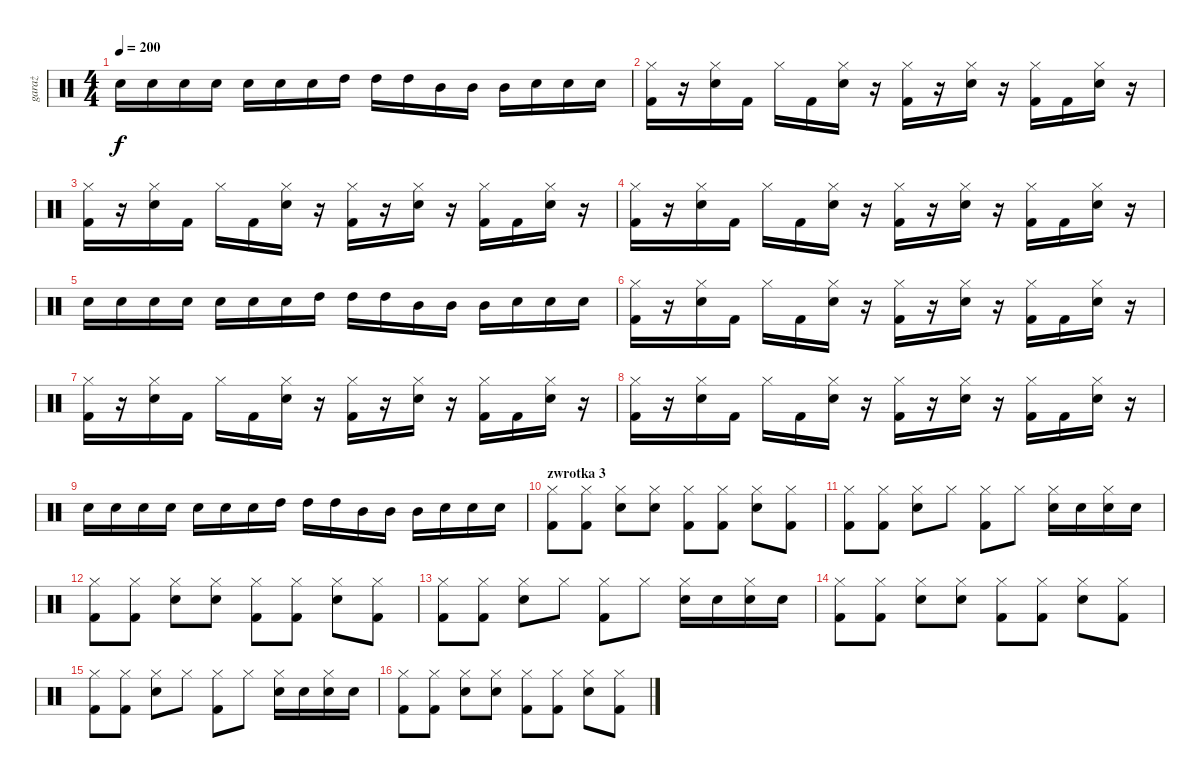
\track ("garaż" "garaż") {instrument percussion}
\staff {score}
\articulation defaults
\ts (4 4)
\tempo 200
\clef neutral
\ks c "Snare (hit) 2".16{dy f} "Snare (hit) 2".16 "Snare (hit) 2".16 "Snare (hit) 2".16 "Snare (hit) 2".16 "Snare (hit) 2".16 "Snare (hit) 2".16 "High Tom (hit)".16 "High Tom (hit)".16 "High Tom (hit)".16 "Mid Tom (hit)".16 "Mid Tom (hit)".16 "Mid Tom (hit)".16 "Snare (hit) 2".16 "Snare (hit) 2".16 "Snare (hit) 2".16
|
("Hi-Hat (closed)" "Kick (hit) 2").16 r.16 ("Hi-Hat (closed)" "Snare (hit) 2").16 "Kick (hit) 2".16 "Hi-Hat (closed)".16 "Kick (hit) 2".16 ("Hi-Hat (closed)" "Snare (hit) 2").16 r.16 ("Hi-Hat (closed)" "Kick (hit) 2").16 r.16 ("Hi-Hat (closed)" "Snare (hit) 2").16 r.16 ("Hi-Hat (closed)" "Kick (hit) 2").16 "Kick (hit) 2".16 ("Hi-Hat (closed)" "Snare (hit) 2").16 r.16 |
("Hi-Hat (closed)" "Kick (hit) 2").16 r.16 ("Hi-Hat (closed)" "Snare (hit) 2").16 "Kick (hit) 2".16 "Hi-Hat (closed)".16 "Kick (hit) 2".16 ("Hi-Hat (closed)" "Snare (hit) 2").16 r.16 ("Hi-Hat (closed)" "Kick (hit) 2").16 r.16 ("Hi-Hat (closed)" "Snare (hit) 2").16 r.16 ("Hi-Hat (closed)" "Kick (hit) 2").16 "Kick (hit) 2".16 ("Hi-Hat (closed)" "Snare (hit) 2").16 r.16 |
("Hi-Hat (closed)" "Kick (hit) 2").16 r.16 ("Hi-Hat (closed)" "Snare (hit) 2").16 "Kick (hit) 2".16 "Hi-Hat (closed)".16 "Kick (hit) 2".16 ("Hi-Hat (closed)" "Snare (hit) 2").16 r.16 ("Hi-Hat (closed)" "Kick (hit) 2").16 r.16 ("Hi-Hat (closed)" "Snare (hit) 2").16 r.16 ("Hi-Hat (closed)" "Kick (hit) 2").16 "Kick (hit) 2".16 ("Hi-Hat (closed)" "Snare (hit) 2").16 r.16 |
"Snare (hit) 2".16 "Snare (hit) 2".16 "Snare (hit) 2".16 "Snare (hit) 2".16 "Snare (hit) 2".16 "Snare (hit) 2".16 "Snare (hit) 2".16 "High Tom (hit)".16 "High Tom (hit)".16 "High Tom (hit)".16 "Mid Tom (hit)".16 "Mid Tom (hit)".16 "Mid Tom (hit)".16 "Snare (hit) 2".16 "Snare (hit) 2".16 "Snare (hit) 2".16 |
("Hi-Hat (closed)" "Kick (hit) 2").16 r.16 ("Hi-Hat (closed)" "Snare (hit) 2").16 "Kick (hit) 2".16 "Hi-Hat (closed)".16 "Kick (hit) 2".16 ("Hi-Hat (closed)" "Snare (hit) 2").16 r.16 ("Hi-Hat (closed)" "Kick (hit) 2").16 r.16 ("Hi-Hat (closed)" "Snare (hit) 2").16 r.16 ("Hi-Hat (closed)" "Kick (hit) 2").16 "Kick (hit) 2".16 ("Hi-Hat (closed)" "Snare (hit) 2").16 r.16 |
("Hi-Hat (closed)" "Kick (hit) 2").16 r.16 ("Hi-Hat (closed)" "Snare (hit) 2").16 "Kick (hit) 2".16 "Hi-Hat (closed)".16 "Kick (hit) 2".16 ("Hi-Hat (closed)" "Snare (hit) 2").16 r.16 ("Hi-Hat (closed)" "Kick (hit) 2").16 r.16 ("Hi-Hat (closed)" "Snare (hit) 2").16 r.16 ("Hi-Hat (closed)" "Kick (hit) 2").16 "Kick (hit) 2".16 ("Hi-Hat (closed)" "Snare (hit) 2").16 r.16 |
("Hi-Hat (closed)" "Kick (hit) 2").16 r.16 ("Hi-Hat (closed)" "Snare (hit) 2").16 "Kick (hit) 2".16 "Hi-Hat (closed)".16 "Kick (hit) 2".16 ("Hi-Hat (closed)" "Snare (hit) 2").16 r.16 ("Hi-Hat (closed)" "Kick (hit) 2").16 r.16 ("Hi-Hat (closed)" "Snare (hit) 2").16 r.16 ("Hi-Hat (closed)" "Kick (hit) 2").16 "Kick (hit) 2".16 ("Hi-Hat (closed)" "Snare (hit) 2").16 r.16 |
"Snare (hit) 2".16 "Snare (hit) 2".16 "Snare (hit) 2".16 "Snare (hit) 2".16 "Snare (hit) 2".16 "Snare (hit) 2".16 "Snare (hit) 2".16 "High Tom (hit)".16 "High Tom (hit)".16 "High Tom (hit)".16 "Mid Tom (hit)".16 "Mid Tom (hit)".16 "Mid Tom (hit)".16 "Snare (hit) 2".16 "Snare (hit) 2".16 "Snare (hit) 2".16 |
\section ("" "zwrotka 3")
("Hi-Hat (closed)" "Kick (hit) 2").8 ("Hi-Hat (closed)" "Kick (hit) 2").8 ("Hi-Hat (closed)" "Snare (hit) 2").8 ("Hi-Hat (closed)" "Snare (hit) 2").8 ("Hi-Hat (closed)" "Kick (hit) 2").8 ("Hi-Hat (closed)" "Kick (hit) 2").8 ("Hi-Hat (closed)" "Snare (hit) 2").8 ("Hi-Hat (closed)" "Kick (hit) 2").8 |
("Hi-Hat (closed)" "Kick (hit) 2").8 ("Hi-Hat (closed)" "Kick (hit) 2").8 ("Hi-Hat (closed)" "Snare (hit) 2").8 "Hi-Hat (closed)".8 ("Hi-Hat (closed)" "Kick (hit) 2").8 "Hi-Hat (closed)".8 ("Hi-Hat (closed)" "Snare (hit) 2").16 "Snare (hit) 2".16 ("Hi-Hat (closed)" "Snare (hit) 2").16 "Snare (hit) 2".16 |
("Hi-Hat (closed)" "Kick (hit) 2").8 ("Hi-Hat (closed)" "Kick (hit) 2").8 ("Hi-Hat (closed)" "Snare (hit) 2").8 ("Hi-Hat (closed)" "Snare (hit) 2").8 ("Hi-Hat (closed)" "Kick (hit) 2").8 ("Hi-Hat (closed)" "Kick (hit) 2").8 ("Hi-Hat (closed)" "Snare (hit) 2").8 ("Hi-Hat (closed)" "Kick (hit) 2").8 |
("Hi-Hat (closed)" "Kick (hit) 2").8 ("Hi-Hat (closed)" "Kick (hit) 2").8 ("Hi-Hat (closed)" "Snare (hit) 2").8 "Hi-Hat (closed)".8 ("Hi-Hat (closed)" "Kick (hit) 2").8 "Hi-Hat (closed)".8 ("Hi-Hat (closed)" "Snare (hit) 2").16 "Snare (hit) 2".16 ("Hi-Hat (closed)" "Snare (hit) 2").16 "Snare (hit) 2".16 |
("Hi-Hat (closed)" "Kick (hit) 2").8 ("Hi-Hat (closed)" "Kick (hit) 2").8 ("Hi-Hat (closed)" "Snare (hit) 2").8 ("Hi-Hat (closed)" "Snare (hit) 2").8 ("Hi-Hat (closed)" "Kick (hit) 2").8 ("Hi-Hat (closed)" "Kick (hit) 2").8 ("Hi-Hat (closed)" "Snare (hit) 2").8 ("Hi-Hat (closed)" "Kick (hit) 2").8 |
("Hi-Hat (closed)" "Kick (hit) 2").8 ("Hi-Hat (closed)" "Kick (hit) 2").8 ("Hi-Hat (closed)" "Snare (hit) 2").8 "Hi-Hat (closed)".8 ("Hi-Hat (closed)" "Kick (hit) 2").8 "Hi-Hat (closed)".8 ("Hi-Hat (closed)" "Snare (hit) 2").16 "Snare (hit) 2".16 ("Hi-Hat (closed)" "Snare (hit) 2").16 "Snare (hit) 2".16 |
("Hi-Hat (closed)" "Kick (hit) 2").8 ("Hi-Hat (closed)" "Kick (hit) 2").8 ("Hi-Hat (closed)" "Snare (hit) 2").8 ("Hi-Hat (closed)" "Snare (hit) 2").8 ("Hi-Hat (closed)" "Kick (hit) 2").8 ("Hi-Hat (closed)" "Kick (hit) 2").8 ("Hi-Hat (closed)" "Snare (hit) 2").8 ("Hi-Hat (closed)" "Kick (hit) 2").8
